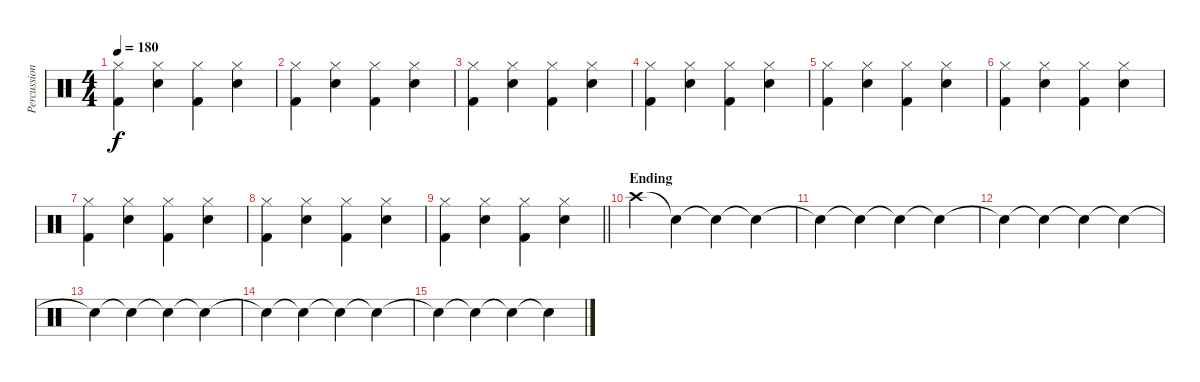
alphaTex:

\track ("Percussion" "Percussion") {instrument percussion}
\staff {score}
\articulation defaults
\ts (4 4)
\tempo 180
\clef neutral
\ks c
("Hi-Hat (closed)" "Kick (hit) 2").4{dy f} ("Hi-Hat (closed)" "Electric Snare (hit)").4 ("Hi-Hat (closed)" "Kick (hit) 2").4 ("Hi-Hat (closed)" "Electric Snare (hit)").4 |
("Hi-Hat (closed)" "Kick (hit) 2").4 ("Hi-Hat (closed)" "Electric Snare (hit)").4 ("Hi-Hat (closed)" "Kick (hit) 2").4 ("Hi-Hat (closed)" "Electric Snare (hit)").4 |
("Hi-Hat (closed)" "Kick (hit) 2").4 ("Hi-Hat (closed)" "Electric Snare (hit)").4 ("Hi-Hat (closed)" "Kick (hit) 2").4 ("Hi-Hat (closed)" "Electric Snare (hit)").4 |
("Hi-Hat (closed)" "Kick (hit) 2").4 ("Hi-Hat (closed)" "Electric Snare (hit)").4 ("Hi-Hat (closed)" "Kick (hit) 2").4 ("Hi-Hat (closed)" "Electric Snare (hit)").4 |
("Hi-Hat (closed)" "Kick (hit) 2").4 ("Hi-Hat (closed)" "Electric Snare (hit)").4 ("Hi-Hat (closed)" "Kick (hit) 2").4 ("Hi-Hat (closed)" "Electric Snare (hit)").4 |
("Hi-Hat (closed)" "Kick (hit) 2").4 ("Hi-Hat (closed)" "Electric Snare (hit)").4 ("Hi-Hat (closed)" "Kick (hit) 2").4 ("Hi-Hat (closed)" "Electric Snare (hit)").4 |
("Hi-Hat (closed)" "Kick (hit) 2").4 ("Hi-Hat (closed)" "Electric Snare (hit)").4 ("Hi-Hat (closed)" "Kick (hit) 2").4 ("Hi-Hat (closed)" "Electric Snare (hit)").4 |
("Hi-Hat (closed)" "Kick (hit) 2").4 ("Hi-Hat (closed)" "Electric Snare (hit)").4 ("Hi-Hat (closed)" "Kick (hit) 2").4 ("Hi-Hat (closed)" "Electric Snare (hit)").4 |
\barLineRight lightlight
("Hi-Hat (closed)" "Kick (hit) 2").4 ("Hi-Hat (closed)" "Electric Snare (hit)").4 ("Hi-Hat (closed)" "Kick (hit) 2").4 ("Hi-Hat (closed)" "Electric Snare (hit)").4 |
\section ("" "Ending")
"Crash high (hit)".4 "Snare (hit)"{t}.4 "Snare (hit)"{t}.4 "Snare (hit)"{t}.4 |
"Snare (hit)"{t}.4 "Snare (hit)"{t}.4 "Snare (hit)"{t}.4 "Snare (hit)"{t}.4 |
"Snare (hit)"{t}.4 "Snare (hit)"{t}.4 "Snare (hit)"{t}.4 "Snare (hit)"{t}.4 |
"Snare (hit)"{t}.4 "Snare (hit)"{t}.4 "Snare (hit)"{t}.4 "Snare (hit)"{t}.4 |
"Snare (hit)"{t}.4 "Snare (hit)"{t}.4 "Snare (hit)"{t}.4 "Snare (hit)"{t}.4 |
"Snare (hit)"{t}.4 "Snare (hit)"{t}.4 "Snare (hit)"{t}.4 "Snare (hit)"{t}.4
